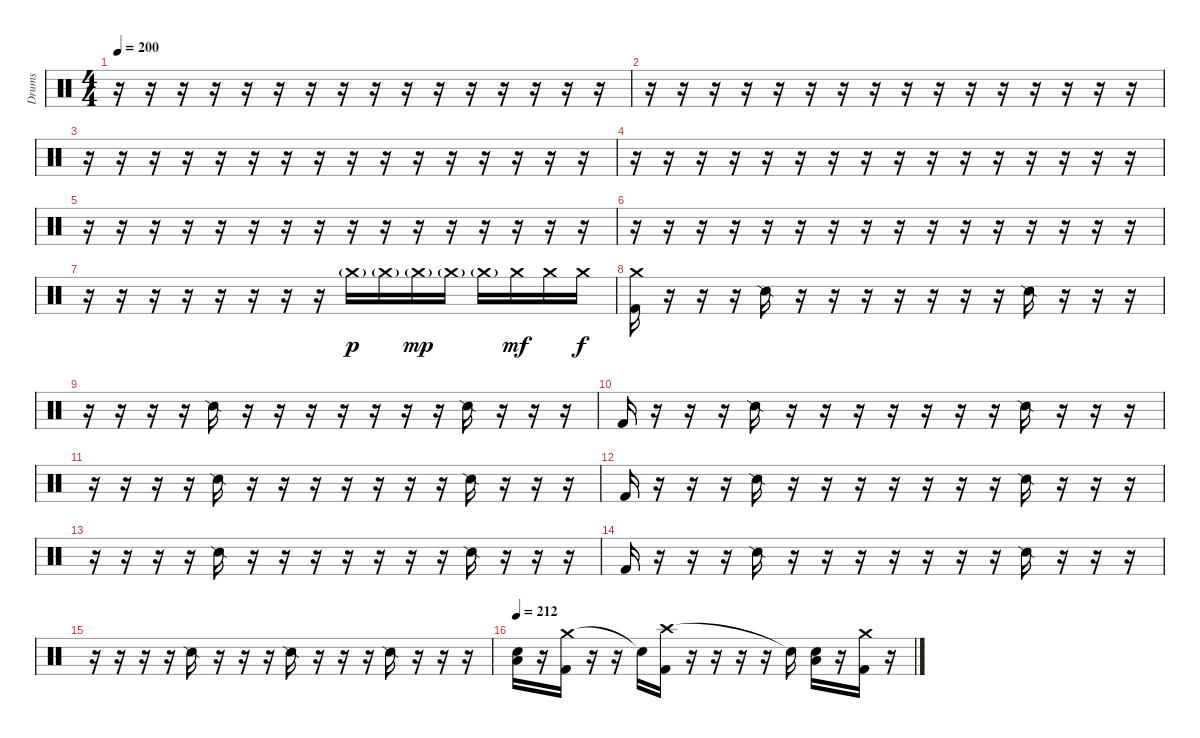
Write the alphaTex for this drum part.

\track ("Drums" "Drums") {instrument percussion}
\staff {score}
\articulation defaults
\ts (4 4)
\tempo 200
\clef neutral
\ks c
r.16{dy f} r.16 r.16 r.16 r.16 r.16 r.16 r.16 r.16 r.16 r.16 r.16 r.16 r.16 r.16 r.16 |
r.16 r.16 r.16 r.16 r.16 r.16 r.16 r.16 r.16 r.16 r.16 r.16 r.16 r.16 r.16 r.16 |
r.16 r.16 r.16 r.16 r.16 r.16 r.16 r.16 r.16 r.16 r.16 r.16 r.16 r.16 r.16 r.16 |
r.16 r.16 r.16 r.16 r.16 r.16 r.16 r.16 r.16 r.16 r.16 r.16 r.16 r.16 r.16 r.16 |
r.16 r.16 r.16 r.16 r.16 r.16 r.16 r.16 r.16 r.16 r.16 r.16 r.16 r.16 r.16 r.16 |
r.16 r.16 r.16 r.16 r.16 r.16 r.16 r.16 r.16 r.16 r.16 r.16 r.16 r.16 r.16 r.16 |
r.16 r.16 r.16 r.16 r.16 r.16 r.16 r.16 "Crash medium (hit)"{g}.16{dy p} "Crash medium (hit)"{g}.16 "Crash medium (hit)"{g}.16{dy mp} "Crash medium (hit)"{g}.16 "Crash medium (hit)"{g}.16 "Crash medium (hit)".16{dy mf} "Crash medium (hit)".16 "Crash medium (hit)".16{dy f} |
("Crash medium (hit)" "Kick (hit) 2").16 r.16 r.16 r.16 "Snare (side stick) 2".16 r.16 r.16 r.16 r.16 r.16 r.16 r.16 "Snare (side stick) 2".16 r.16 r.16 r.16 |
r.16 r.16 r.16 r.16 "Snare (side stick) 2".16 r.16 r.16 r.16 r.16 r.16 r.16 r.16 "Snare (side stick) 2".16 r.16 r.16 r.16 |
"Kick (hit) 2".16 r.16 r.16 r.16 "Snare (side stick) 2".16 r.16 r.16 r.16 r.16 r.16 r.16 r.16 "Snare (side stick) 2".16 r.16 r.16 r.16 |
r.16 r.16 r.16 r.16 "Snare (side stick) 2".16 r.16 r.16 r.16 r.16 r.16 r.16 r.16 "Snare (side stick) 2".16 r.16 r.16 r.16 |
"Kick (hit) 2".16 r.16 r.16 r.16 "Snare (side stick) 2".16 r.16 r.16 r.16 r.16 r.16 r.16 r.16 "Snare (side stick) 2".16 r.16 r.16 r.16 |
r.16 r.16 r.16 r.16 "Snare (side stick) 2".16 r.16 r.16 r.16 r.16 r.16 r.16 r.16 "Snare (side stick) 2".16 r.16 r.16 r.16 |
"Kick (hit) 2".16 r.16 r.16 r.16 "Snare (side stick) 2".16 r.16 r.16 r.16 r.16 r.16 r.16 r.16 "Snare (side stick) 2".16 r.16 r.16 r.16 |
r.16 r.16 r.16 r.16 "Snare (side stick) 2".16 r.16 r.16 r.16 "Snare (side stick) 2".16 r.16 r.16 r.16 "Snare (side stick) 2".16 r.16 r.16 r.16 |
\tempo 212
("Low Tom (hit)" "Electric Snare (hit)").16 r.16 ("Crash medium (hit)" "Kick (hit) 2").16 r.16 r.16 "Snare (hit)"{t}.16 ("Crash high (hit)" "Kick (hit) 2").16 r.16 r.16 r.16 r.16 "Snare (hit)"{t}.16 ("Low Tom (hit)" "Electric Snare (hit)").16 r.16 ("Crash medium (hit)" "Kick (hit) 2").16 r.16
